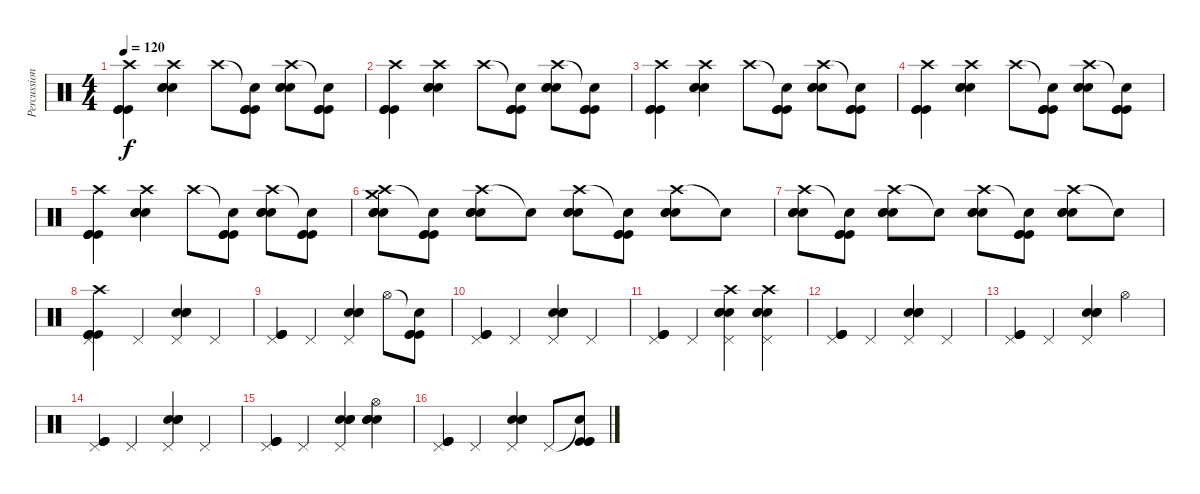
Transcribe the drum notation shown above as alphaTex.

\track ("Percussions" "Percussion") {instrument percussion}
\staff {score}
\articulation defaults
\ts (4 4)
\tempo 120
\clef neutral
\ks c
("Crash high (hit)" "Kick (hit)" "Kick (hit)" "Kick (hit)").4{dy f} ("Crash high (hit)" "Snare (hit) 2" "Snare (hit) 2" "Snare (hit) 2").4 "Crash high (hit)".8 ("Snare (hit)"{t} "Kick (hit)" "Kick (hit)" "Kick (hit)").8 ("Crash high (hit)" "Snare (hit) 2" "Snare (hit) 2" "Snare (hit) 2").8 ("Snare (hit)"{t} "Kick (hit)" "Kick (hit)" "Kick (hit)").8 |
("Crash high (hit)" "Kick (hit)" "Kick (hit)" "Kick (hit)").4 ("Crash high (hit)" "Snare (hit) 2" "Snare (hit) 2" "Snare (hit) 2").4 "Crash high (hit)".8 ("Snare (hit)"{t} "Kick (hit)" "Kick (hit)" "Kick (hit)").8 ("Crash high (hit)" "Snare (hit) 2" "Snare (hit) 2" "Snare (hit) 2").8 ("Snare (hit)"{t} "Kick (hit)" "Kick (hit)" "Kick (hit)").8 |
("Crash high (hit)" "Kick (hit)" "Kick (hit)" "Kick (hit)").4 ("Crash high (hit)" "Snare (hit) 2" "Snare (hit) 2" "Snare (hit) 2").4 "Crash high (hit)".8 ("Snare (hit)"{t} "Kick (hit)" "Kick (hit)" "Kick (hit)").8 ("Crash high (hit)" "Snare (hit) 2" "Snare (hit) 2" "Snare (hit) 2").8 ("Snare (hit)"{t} "Kick (hit)" "Kick (hit)" "Kick (hit)").8 |
("Crash high (hit)" "Kick (hit)" "Kick (hit)" "Kick (hit)").4 ("Crash high (hit)" "Snare (hit) 2" "Snare (hit) 2" "Snare (hit) 2").4 "Crash high (hit)".8 ("Snare (hit)"{t} "Kick (hit)" "Kick (hit)" "Kick (hit)").8 ("Crash high (hit)" "Snare (hit) 2" "Snare (hit) 2" "Snare (hit) 2").8 ("Snare (hit)"{t} "Kick (hit)" "Kick (hit)" "Kick (hit)").8 |
("Crash high (hit)" "Kick (hit)" "Kick (hit)" "Kick (hit)").4 ("Crash high (hit)" "Snare (hit) 2" "Snare (hit) 2" "Snare (hit) 2").4 "Crash high (hit)".8 ("Snare (hit)"{t} "Kick (hit)" "Kick (hit)" "Kick (hit)").8 ("Crash high (hit)" "Snare (hit) 2" "Snare (hit) 2" "Snare (hit) 2").8 ("Snare (hit)"{t} "Kick (hit)" "Kick (hit)" "Kick (hit)").8 |
("Crash high (hit)" "Crash medium (hit)" "Snare (hit) 2" "Snare (hit) 2" "Snare (hit) 2").8 ("Snare (hit)"{t} "Kick (hit)" "Kick (hit)" "Kick (hit)").8 ("Crash high (hit)" "Snare (hit) 2" "Snare (hit) 2" "Snare (hit) 2").8 "Snare (hit)"{t}.8 ("Crash high (hit)" "Snare (hit) 2" "Snare (hit) 2" "Snare (hit) 2").8 ("Snare (hit)"{t} "Kick (hit)" "Kick (hit)" "Kick (hit)").8 ("Crash high (hit)" "Snare (hit) 2" "Snare (hit) 2" "Snare (hit) 2").8 "Snare (hit)"{t}.8 |
("Crash high (hit)" "Snare (hit) 2" "Snare (hit) 2" "Snare (hit) 2").8 ("Snare (hit)"{t} "Kick (hit)" "Kick (hit)" "Kick (hit)").8 ("Crash high (hit)" "Snare (hit) 2" "Snare (hit) 2" "Snare (hit) 2").8 "Snare (hit)"{t}.8 ("Crash high (hit)" "Snare (hit) 2" "Snare (hit) 2" "Snare (hit) 2").8 ("Snare (hit)"{t} "Kick (hit)" "Kick (hit)" "Kick (hit)").8 ("Crash high (hit)" "Snare (hit) 2" "Snare (hit) 2" "Snare (hit) 2").8 "Snare (hit)"{t}.8 |
("Pedal Hi-Hat (hit)" "Crash high (hit)" "Kick (hit)" "Kick (hit)" "Kick (hit)").4 "Pedal Hi-Hat (hit)".4 ("Pedal Hi-Hat (hit)" "Snare (hit) 2" "Snare (hit) 2" "Snare (hit) 2").4 "Pedal Hi-Hat (hit)".4 |
("Pedal Hi-Hat (hit)" "Kick (hit)" "Kick (hit)" "Kick (hit)").4 "Pedal Hi-Hat (hit)".4 ("Pedal Hi-Hat (hit)" "Snare (hit) 2" "Snare (hit) 2" "Snare (hit) 2").4 "Hi-Hat (open)".8 ("Snare (hit)"{t} "Kick (hit)" "Kick (hit)" "Kick (hit)").8 |
("Pedal Hi-Hat (hit)" "Kick (hit)" "Kick (hit)" "Kick (hit)").4 "Pedal Hi-Hat (hit)".4 ("Pedal Hi-Hat (hit)" "Snare (hit) 2" "Snare (hit) 2" "Snare (hit) 2").4 "Pedal Hi-Hat (hit)".4 |
("Pedal Hi-Hat (hit)" "Kick (hit)" "Kick (hit)" "Kick (hit)").4 "Pedal Hi-Hat (hit)".4 ("Pedal Hi-Hat (hit)" "Crash high (hit)" "Snare (hit) 2" "Snare (hit) 2" "Snare (hit) 2").4 ("Pedal Hi-Hat (hit)" "Crash high (hit)" "Snare (hit) 2" "Snare (hit) 2" "Snare (hit) 2").4 |
("Pedal Hi-Hat (hit)" "Kick (hit)" "Kick (hit)" "Kick (hit)").4 "Pedal Hi-Hat (hit)".4 ("Pedal Hi-Hat (hit)" "Snare (hit) 2" "Snare (hit) 2" "Snare (hit) 2").4 "Pedal Hi-Hat (hit)".4 |
("Pedal Hi-Hat (hit)" "Kick (hit)" "Kick (hit)" "Kick (hit)").4 "Pedal Hi-Hat (hit)".4 ("Pedal Hi-Hat (hit)" "Snare (hit) 2" "Snare (hit) 2" "Snare (hit) 2").4 "Hi-Hat (open)".4 |
("Pedal Hi-Hat (hit)" "Kick (hit)" "Kick (hit)" "Kick (hit)").4 "Pedal Hi-Hat (hit)".4 ("Pedal Hi-Hat (hit)" "Snare (hit) 2" "Snare (hit) 2" "Snare (hit) 2").4 "Pedal Hi-Hat (hit)".4 |
("Pedal Hi-Hat (hit)" "Kick (hit)" "Kick (hit)" "Kick (hit)").4 "Pedal Hi-Hat (hit)".4 ("Pedal Hi-Hat (hit)" "Snare (hit) 2" "Snare (hit) 2" "Snare (hit) 2").4 ("Hi-Hat (open)" "Snare (hit) 2" "Snare (hit) 2" "Snare (hit) 2").4 |
("Pedal Hi-Hat (hit)" "Kick (hit)" "Kick (hit)" "Kick (hit)").4 "Pedal Hi-Hat (hit)".4 ("Pedal Hi-Hat (hit)" "Snare (hit) 2" "Snare (hit) 2" "Snare (hit) 2").4 "Pedal Hi-Hat (hit)".8 ("Snare (hit)"{t} "Kick (hit)" "Kick (hit)" "Kick (hit)").8
